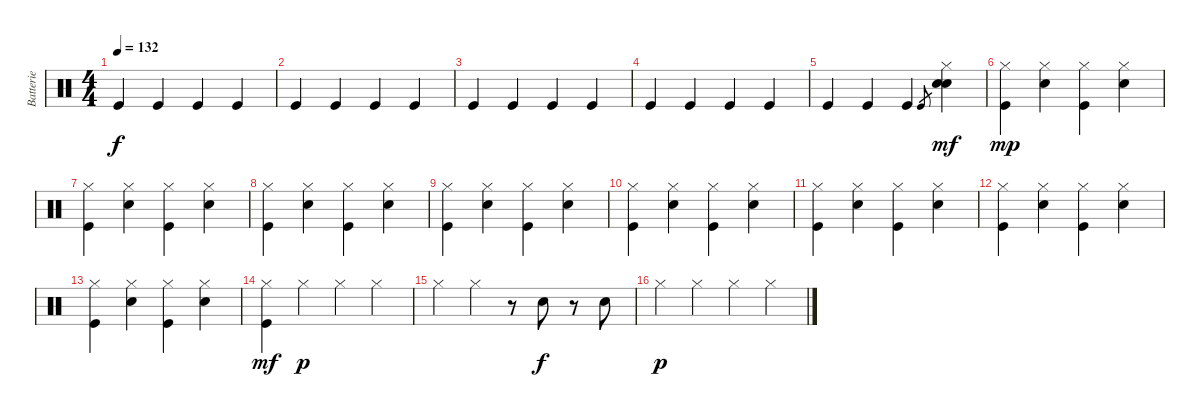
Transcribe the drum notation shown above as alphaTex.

\track ("Batterie" "Batterie") {instrument percussion}
\staff {score}
\articulation defaults
\ts (4 4)
\tempo 132
\clef neutral
\ks c "Kick (hit)".4{dy f} "Kick (hit)".4 "Kick (hit)".4 "Kick (hit)".4
|
"Kick (hit)".4 "Kick (hit)".4 "Kick (hit)".4 "Kick (hit)".4 |
"Kick (hit)".4 "Kick (hit)".4 "Kick (hit)".4 "Kick (hit)".4 |
"Kick (hit)".4 "Kick (hit)".4 "Kick (hit)".4 "Kick (hit)".4 |
"Kick (hit)".4 "Kick (hit)".4 "Kick (hit)".4 "Kick (hit)".8{gr} ("Hi-Hat (closed)" "Snare (hit) 2" "Snare (hit) 2").4{dy mf} |
("Hi-Hat (closed)" "Kick (hit)").4{dy mp} ("Hi-Hat (closed)" "Snare (hit) 2").4 ("Hi-Hat (closed)" "Kick (hit)").4 ("Hi-Hat (closed)" "Snare (hit) 2").4 |
("Hi-Hat (closed)" "Kick (hit)").4 ("Hi-Hat (closed)" "Snare (hit) 2").4 ("Hi-Hat (closed)" "Kick (hit)").4 ("Hi-Hat (closed)" "Snare (hit) 2").4 |
("Hi-Hat (closed)" "Kick (hit)").4 ("Hi-Hat (closed)" "Snare (hit) 2").4 ("Hi-Hat (closed)" "Kick (hit)").4 ("Hi-Hat (closed)" "Snare (hit) 2").4 |
("Hi-Hat (closed)" "Kick (hit)").4 ("Hi-Hat (closed)" "Snare (hit) 2").4 ("Hi-Hat (closed)" "Kick (hit)").4 ("Hi-Hat (closed)" "Snare (hit) 2").4 |
("Hi-Hat (closed)" "Kick (hit)").4 ("Hi-Hat (closed)" "Snare (hit) 2").4 ("Hi-Hat (closed)" "Kick (hit)").4 ("Hi-Hat (closed)" "Snare (hit) 2").4 |
("Hi-Hat (closed)" "Kick (hit)").4 ("Hi-Hat (closed)" "Snare (hit) 2").4 ("Hi-Hat (closed)" "Kick (hit)").4 ("Hi-Hat (closed)" "Snare (hit) 2").4 |
("Hi-Hat (closed)" "Kick (hit)").4 ("Hi-Hat (closed)" "Snare (hit) 2").4 ("Hi-Hat (closed)" "Kick (hit)").4 ("Hi-Hat (closed)" "Snare (hit) 2").4 |
("Hi-Hat (closed)" "Kick (hit)").4 ("Hi-Hat (closed)" "Snare (hit) 2").4 ("Hi-Hat (closed)" "Kick (hit)").4 ("Hi-Hat (closed)" "Snare (hit) 2").4 |
("Hi-Hat (closed)" "Kick (hit)").4{dy mf} "Hi-Hat (closed)".4{dy p} "Hi-Hat (closed)".4 "Hi-Hat (closed)".4 |
"Hi-Hat (closed)".4 "Hi-Hat (closed)".4 r.8 "Snare (hit) 2".8{dy f} r.8 "Snare (hit) 2".8 |
"Hi-Hat (closed)".4{dy p} "Hi-Hat (closed)".4 "Hi-Hat (closed)".4 "Hi-Hat (closed)".4
